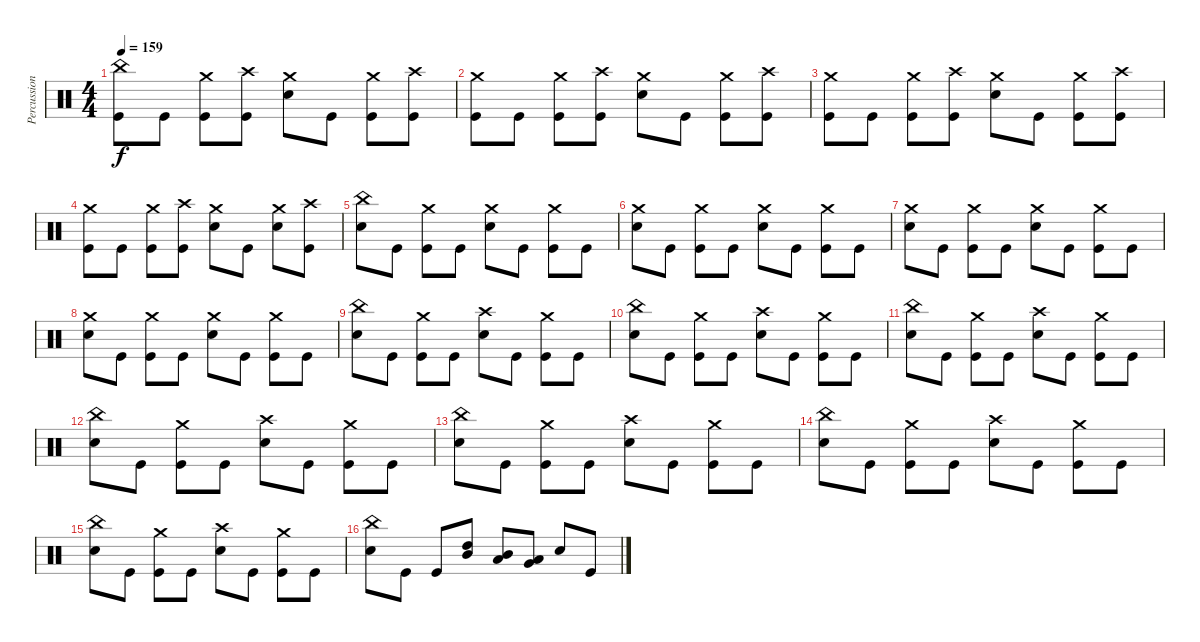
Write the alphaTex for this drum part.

\track ("Percussion" "Percussion") {instrument percussion}
\staff {score}
\articulation defaults
\ts (4 4)
\tempo 159
\clef neutral
\ks c
("China (hit)" "Kick (hit)").8{dy f} "Kick (hit)".8 ("Crash medium (hit)" "Kick (hit)").8 ("Crash high (hit)" "Kick (hit)").8 ("Crash medium (hit)" "Snare (hit) 2").8 "Kick (hit)".8 ("Crash medium (hit)" "Kick (hit)").8 ("Crash high (hit)" "Kick (hit)").8 |
("Crash medium (hit)" "Kick (hit)").8 "Kick (hit)".8 ("Crash medium (hit)" "Kick (hit)").8 ("Crash high (hit)" "Kick (hit)").8 ("Crash medium (hit)" "Snare (hit) 2").8 "Kick (hit)".8 ("Crash medium (hit)" "Kick (hit)").8 ("Crash high (hit)" "Kick (hit)").8 |
("Crash medium (hit)" "Kick (hit)").8 "Kick (hit)".8 ("Crash medium (hit)" "Kick (hit)").8 ("Crash high (hit)" "Kick (hit)").8 ("Crash medium (hit)" "Snare (hit) 2").8 "Kick (hit)".8 ("Crash medium (hit)" "Kick (hit)").8 ("Crash high (hit)" "Kick (hit)").8 |
("Crash medium (hit)" "Kick (hit)").8 "Kick (hit)".8 ("Crash medium (hit)" "Kick (hit)").8 ("Crash high (hit)" "Kick (hit)").8 ("Crash medium (hit)" "Snare (hit) 2").8 "Kick (hit)".8 ("Crash medium (hit)" "Snare (hit) 2").8 ("Crash high (hit)" "Kick (hit)").8 |
("China (hit)" "Snare (hit) 2").8 "Kick (hit)".8 ("Crash medium (hit)" "Kick (hit)").8 "Kick (hit)".8 ("Crash medium (hit)" "Snare (hit) 2").8 "Kick (hit)".8 ("Crash medium (hit)" "Kick (hit)").8 "Kick (hit)".8 |
("Crash medium (hit)" "Snare (hit) 2").8 "Kick (hit)".8 ("Crash medium (hit)" "Kick (hit)").8 "Kick (hit)".8 ("Crash medium (hit)" "Snare (hit) 2").8 "Kick (hit)".8 ("Crash medium (hit)" "Kick (hit)").8 "Kick (hit)".8 |
("Crash medium (hit)" "Snare (hit) 2").8 "Kick (hit)".8 ("Crash medium (hit)" "Kick (hit)").8 "Kick (hit)".8 ("Crash medium (hit)" "Snare (hit) 2").8 "Kick (hit)".8 ("Crash medium (hit)" "Kick (hit)").8 "Kick (hit)".8 |
("Crash medium (hit)" "Snare (hit) 2").8 "Kick (hit)".8 ("Crash medium (hit)" "Kick (hit)").8 "Kick (hit)".8 ("Crash medium (hit)" "Snare (hit) 2").8 "Kick (hit)".8 ("Crash medium (hit)" "Kick (hit)").8 "Kick (hit)".8 |
("China (hit)" "Snare (hit) 2").8 "Kick (hit)".8 ("Crash medium (hit)" "Kick (hit)").8 "Kick (hit)".8 ("Crash high (hit)" "Snare (hit) 2").8 "Kick (hit)".8 ("Crash medium (hit)" "Kick (hit)").8 "Kick (hit)".8 |
("China (hit)" "Snare (hit) 2").8 "Kick (hit)".8 ("Crash medium (hit)" "Kick (hit)").8 "Kick (hit)".8 ("Crash high (hit)" "Snare (hit) 2").8 "Kick (hit)".8 ("Crash medium (hit)" "Kick (hit)").8 "Kick (hit)".8 |
("China (hit)" "Snare (hit) 2").8 "Kick (hit)".8 ("Crash medium (hit)" "Kick (hit)").8 "Kick (hit)".8 ("Crash high (hit)" "Snare (hit) 2").8 "Kick (hit)".8 ("Crash medium (hit)" "Kick (hit)").8 "Kick (hit)".8 |
("China (hit)" "Snare (hit) 2").8 "Kick (hit)".8 ("Crash medium (hit)" "Kick (hit)").8 "Kick (hit)".8 ("Crash high (hit)" "Snare (hit) 2").8 "Kick (hit)".8 ("Crash medium (hit)" "Kick (hit)").8 "Kick (hit)".8 |
("China (hit)" "Snare (hit) 2").8 "Kick (hit)".8 ("Crash medium (hit)" "Kick (hit)").8 "Kick (hit)".8 ("Crash high (hit)" "Snare (hit) 2").8 "Kick (hit)".8 ("Crash medium (hit)" "Kick (hit)").8 "Kick (hit)".8 |
("China (hit)" "Snare (hit) 2").8 "Kick (hit)".8 ("Crash medium (hit)" "Kick (hit)").8 "Kick (hit)".8 ("Crash high (hit)" "Snare (hit) 2").8 "Kick (hit)".8 ("Crash medium (hit)" "Kick (hit)").8 "Kick (hit)".8 |
("China (hit)" "Snare (hit) 2").8 "Kick (hit)".8 ("Crash medium (hit)" "Kick (hit)").8 "Kick (hit)".8 ("Crash high (hit)" "Snare (hit) 2").8 "Kick (hit)".8 ("Crash medium (hit)" "Kick (hit)").8 "Kick (hit)".8 |
("China (hit)" "Snare (hit) 2").8 "Kick (hit)".8 "Kick (hit)".8 ("High Tom (hit)" "Mid Tom (hit)").8 ("Mid Tom (hit)" "Low Tom (hit)").8 ("Low Tom (hit)" "Very Low Tom (hit)").8 "Snare (hit) 2".8 "Kick (hit)".8
